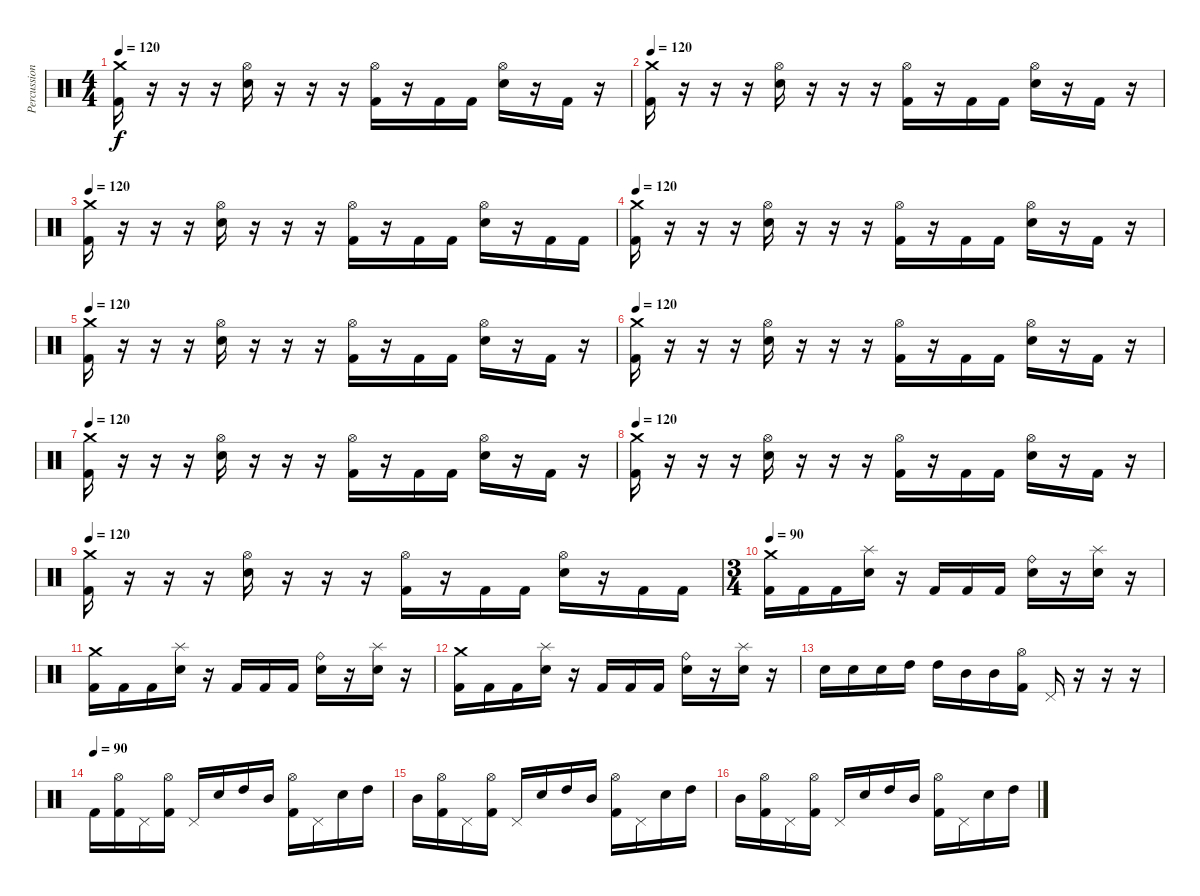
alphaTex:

\track ("Percussion" "Percussion") {instrument percussion}
\staff {score}
\articulation defaults
\ts (4 4)
\tempo 120
\clef neutral
\ks c
("Crash medium (hit)" "Kick (hit) 2").16{dy f} r.16 r.16 r.16 ("Hi-Hat (open)" "Electric Snare (hit)").16 r.16 r.16 r.16 ("Hi-Hat (open)" "Kick (hit) 2").16 r.16 "Kick (hit) 2".16 "Kick (hit) 2".16 ("Hi-Hat (open)" "Electric Snare (hit)").16 r.16 "Kick (hit) 2".16 r.16 |
\tempo 120
("Crash medium (hit)" "Kick (hit) 2").16 r.16 r.16 r.16 ("Hi-Hat (open)" "Electric Snare (hit)").16 r.16 r.16 r.16 ("Hi-Hat (open)" "Kick (hit) 2").16 r.16 "Kick (hit) 2".16 "Kick (hit) 2".16 ("Hi-Hat (open)" "Electric Snare (hit)").16 r.16 "Kick (hit) 2".16 r.16 |
\tempo 120
("Crash medium (hit)" "Kick (hit) 2").16 r.16 r.16 r.16 ("Hi-Hat (open)" "Electric Snare (hit)").16 r.16 r.16 r.16 ("Hi-Hat (open)" "Kick (hit) 2").16 r.16 "Kick (hit) 2".16 "Kick (hit) 2".16 ("Hi-Hat (open)" "Electric Snare (hit)").16 r.16 "Kick (hit) 2".16 "Kick (hit) 2".16 |
\tempo 120
("Crash medium (hit)" "Kick (hit) 2").16 r.16 r.16 r.16 ("Hi-Hat (open)" "Electric Snare (hit)").16 r.16 r.16 r.16 ("Hi-Hat (open)" "Kick (hit) 2").16 r.16 "Kick (hit) 2".16 "Kick (hit) 2".16 ("Hi-Hat (open)" "Electric Snare (hit)").16 r.16 "Kick (hit) 2".16 r.16 |
\tempo 120
("Crash medium (hit)" "Kick (hit) 2").16 r.16 r.16 r.16 ("Hi-Hat (open)" "Electric Snare (hit)").16 r.16 r.16 r.16 ("Hi-Hat (open)" "Kick (hit) 2").16 r.16 "Kick (hit) 2".16 "Kick (hit) 2".16 ("Hi-Hat (open)" "Electric Snare (hit)").16 r.16 "Kick (hit) 2".16 r.16 |
\tempo 120
("Crash medium (hit)" "Kick (hit) 2").16 r.16 r.16 r.16 ("Hi-Hat (open)" "Electric Snare (hit)").16 r.16 r.16 r.16 ("Hi-Hat (open)" "Kick (hit) 2").16 r.16 "Kick (hit) 2".16 "Kick (hit) 2".16 ("Hi-Hat (open)" "Electric Snare (hit)").16 r.16 "Kick (hit) 2".16 r.16 |
\tempo 120
("Crash medium (hit)" "Kick (hit) 2").16 r.16 r.16 r.16 ("Hi-Hat (open)" "Electric Snare (hit)").16 r.16 r.16 r.16 ("Hi-Hat (open)" "Kick (hit) 2").16 r.16 "Kick (hit) 2".16 "Kick (hit) 2".16 ("Hi-Hat (open)" "Electric Snare (hit)").16 r.16 "Kick (hit) 2".16 r.16 |
\tempo 120
("Crash medium (hit)" "Kick (hit) 2").16 r.16 r.16 r.16 ("Hi-Hat (open)" "Electric Snare (hit)").16 r.16 r.16 r.16 ("Hi-Hat (open)" "Kick (hit) 2").16 r.16 "Kick (hit) 2".16 "Kick (hit) 2".16 ("Hi-Hat (open)" "Electric Snare (hit)").16 r.16 "Kick (hit) 2".16 r.16 |
\tempo 120
("Crash medium (hit)" "Kick (hit) 2").16 r.16 r.16 r.16 ("Hi-Hat (open)" "Electric Snare (hit)").16 r.16 r.16 r.16 ("Hi-Hat (open)" "Kick (hit) 2").16 r.16 "Kick (hit) 2".16 "Kick (hit) 2".16 ("Hi-Hat (open)" "Electric Snare (hit)").16 r.16 "Kick (hit) 2".16 "Kick (hit) 2".16 |
\ts (3 4)
\tempo 90
("Crash medium (hit)" "Kick (hit) 2").16 "Kick (hit) 2".16 "Kick (hit) 2".16 ("Splash (hit)" "Electric Snare (hit)").16 r.16 "Kick (hit) 2".16 "Kick (hit) 2".16 "Kick (hit) 2".16 ("Ride (bell)" "Electric Snare (hit)").16 r.16 ("Splash (hit)" "Electric Snare (hit)").16 r.16 |
("Crash medium (hit)" "Kick (hit) 2").16 "Kick (hit) 2".16 "Kick (hit) 2".16 ("Splash (hit)" "Electric Snare (hit)").16 r.16 "Kick (hit) 2".16 "Kick (hit) 2".16 "Kick (hit) 2".16 ("Ride (bell)" "Electric Snare (hit)").16 r.16 ("Splash (hit)" "Electric Snare (hit)").16 r.16 |
("Crash medium (hit)" "Kick (hit) 2").16 "Kick (hit) 2".16 "Kick (hit) 2".16 ("Splash (hit)" "Electric Snare (hit)").16 r.16 "Kick (hit) 2".16 "Kick (hit) 2".16 "Kick (hit) 2".16 ("Ride (bell)" "Electric Snare (hit)").16 r.16 ("Splash (hit)" "Electric Snare (hit)").16 r.16 |
"Electric Snare (hit)".16 "Electric Snare (hit)".16 "Electric Snare (hit)".16 "High Tom (hit)".16 "High Tom (hit)".16 "Mid Tom (hit)".16 "Mid Tom (hit)".16 ("Hi-Hat (open)" "Kick (hit) 2").16 "Pedal Hi-Hat (hit)".16 r.16 r.16 r.16 |
\tempo (90)
"Kick (hit) 2".16 ("Hi-Hat (open)" "Kick (hit) 2").16 "Pedal Hi-Hat (hit)".16 ("Hi-Hat (open)" "Kick (hit) 2").16 "Pedal Hi-Hat (hit)".16 "Electric Snare (hit)".16 "High Tom (hit)".16 "Mid Tom (hit)".16 ("Hi-Hat (open)" "Kick (hit) 2").16 "Pedal Hi-Hat (hit)".16 "Electric Snare (hit)".16 "High Tom (hit)".16 |
"Mid Tom (hit)".16 ("Hi-Hat (open)" "Kick (hit) 2").16 "Pedal Hi-Hat (hit)".16 ("Hi-Hat (open)" "Kick (hit) 2").16 "Pedal Hi-Hat (hit)".16 "Electric Snare (hit)".16 "High Tom (hit)".16 "Mid Tom (hit)".16 ("Hi-Hat (open)" "Kick (hit) 2").16 "Pedal Hi-Hat (hit)".16 "Electric Snare (hit)".16 "High Tom (hit)".16 |
"Mid Tom (hit)".16 ("Hi-Hat (open)" "Kick (hit) 2").16 "Pedal Hi-Hat (hit)".16 ("Hi-Hat (open)" "Kick (hit) 2").16 "Pedal Hi-Hat (hit)".16 "Electric Snare (hit)".16 "High Tom (hit)".16 "Mid Tom (hit)".16 ("Hi-Hat (open)" "Kick (hit) 2").16 "Pedal Hi-Hat (hit)".16 "Electric Snare (hit)".16 "High Tom (hit)".16
